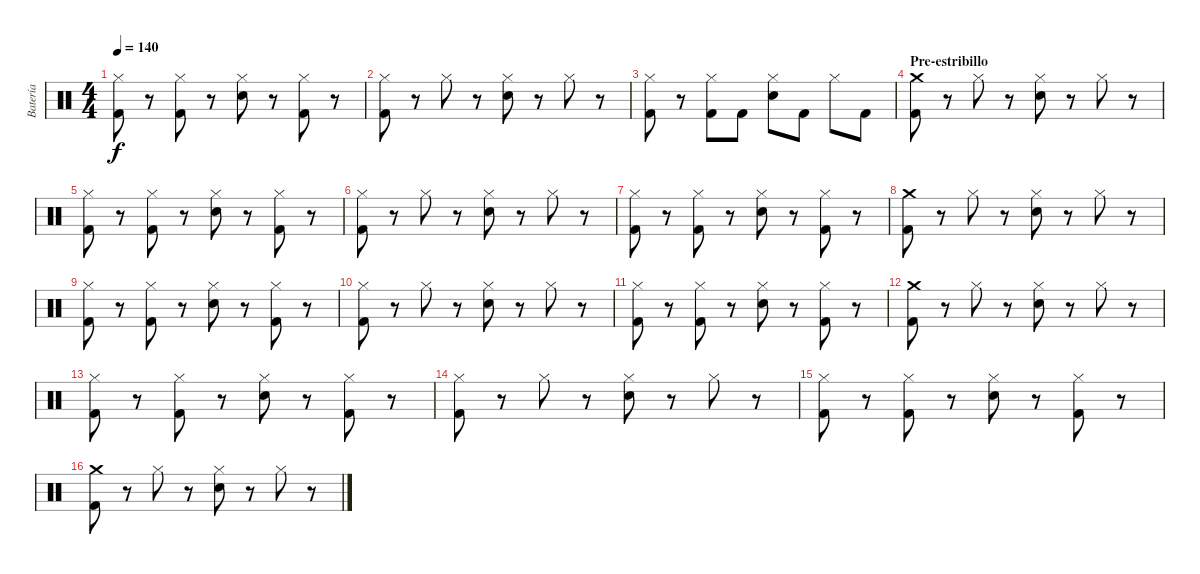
\track ("Batería" "Batería") {instrument percussion}
\staff {score}
\articulation defaults
\ts (4 4)
\tempo 140
\clef neutral
\ks c
("Hi-Hat (closed)" "Kick (hit) 2").8{dy f} r.8 ("Hi-Hat (closed)" "Kick (hit) 2").8 r.8 ("Hi-Hat (closed)" "Snare (hit) 2").8 r.8 ("Hi-Hat (closed)" "Kick (hit) 2").8 r.8 |
("Hi-Hat (closed)" "Kick (hit) 2").8 r.8 "Hi-Hat (closed)".8 r.8 ("Hi-Hat (closed)" "Snare (hit) 2").8 r.8 "Hi-Hat (closed)".8 r.8 |
("Hi-Hat (closed)" "Kick (hit) 2").8 r.8 ("Hi-Hat (closed)" "Kick (hit) 2").8 "Kick (hit) 2".8 ("Hi-Hat (closed)" "Snare (hit) 2").8 "Kick (hit) 2".8 "Hi-Hat (closed)".8 "Kick (hit) 2".8 |
\section ("" "Pre-estribillo")
("Crash medium (hit)" "Kick (hit) 2").8 r.8 "Hi-Hat (closed)".8 r.8 ("Hi-Hat (closed)" "Snare (hit) 2").8 r.8 "Hi-Hat (closed)".8 r.8 |
("Hi-Hat (closed)" "Kick (hit) 2").8 r.8 ("Hi-Hat (closed)" "Kick (hit) 2").8 r.8 ("Hi-Hat (closed)" "Snare (hit) 2").8 r.8 ("Hi-Hat (closed)" "Kick (hit) 2").8 r.8 |
("Hi-Hat (closed)" "Kick (hit) 2").8 r.8 "Hi-Hat (closed)".8 r.8 ("Hi-Hat (closed)" "Snare (hit) 2").8 r.8 "Hi-Hat (closed)".8 r.8 |
("Hi-Hat (closed)" "Kick (hit) 2").8 r.8 ("Hi-Hat (closed)" "Kick (hit) 2").8 r.8 ("Hi-Hat (closed)" "Snare (hit) 2").8 r.8 ("Hi-Hat (closed)" "Kick (hit) 2").8 r.8 |
("Crash medium (hit)" "Kick (hit) 2").8 r.8 "Hi-Hat (closed)".8 r.8 ("Hi-Hat (closed)" "Snare (hit) 2").8 r.8 "Hi-Hat (closed)".8 r.8 |
("Hi-Hat (closed)" "Kick (hit) 2").8 r.8 ("Hi-Hat (closed)" "Kick (hit) 2").8 r.8 ("Hi-Hat (closed)" "Snare (hit) 2").8 r.8 ("Hi-Hat (closed)" "Kick (hit) 2").8 r.8 |
("Hi-Hat (closed)" "Kick (hit) 2").8 r.8 "Hi-Hat (closed)".8 r.8 ("Hi-Hat (closed)" "Snare (hit) 2").8 r.8 "Hi-Hat (closed)".8 r.8 |
("Hi-Hat (closed)" "Kick (hit) 2").8 r.8 ("Hi-Hat (closed)" "Kick (hit) 2").8 r.8 ("Hi-Hat (closed)" "Snare (hit) 2").8 r.8 ("Hi-Hat (closed)" "Kick (hit) 2").8 r.8 |
("Crash medium (hit)" "Kick (hit) 2").8 r.8 "Hi-Hat (closed)".8 r.8 ("Hi-Hat (closed)" "Snare (hit) 2").8 r.8 "Hi-Hat (closed)".8 r.8 |
("Hi-Hat (closed)" "Kick (hit) 2").8 r.8 ("Hi-Hat (closed)" "Kick (hit) 2").8 r.8 ("Hi-Hat (closed)" "Snare (hit) 2").8 r.8 ("Hi-Hat (closed)" "Kick (hit) 2").8 r.8 |
("Hi-Hat (closed)" "Kick (hit) 2").8 r.8 "Hi-Hat (closed)".8 r.8 ("Hi-Hat (closed)" "Snare (hit) 2").8 r.8 "Hi-Hat (closed)".8 r.8 |
("Hi-Hat (closed)" "Kick (hit) 2").8 r.8 ("Hi-Hat (closed)" "Kick (hit) 2").8 r.8 ("Hi-Hat (closed)" "Snare (hit) 2").8 r.8 ("Hi-Hat (closed)" "Kick (hit) 2").8 r.8 |
("Crash medium (hit)" "Kick (hit) 2").8 r.8 "Hi-Hat (closed)".8 r.8 ("Hi-Hat (closed)" "Snare (hit) 2").8 r.8 "Hi-Hat (closed)".8 r.8
